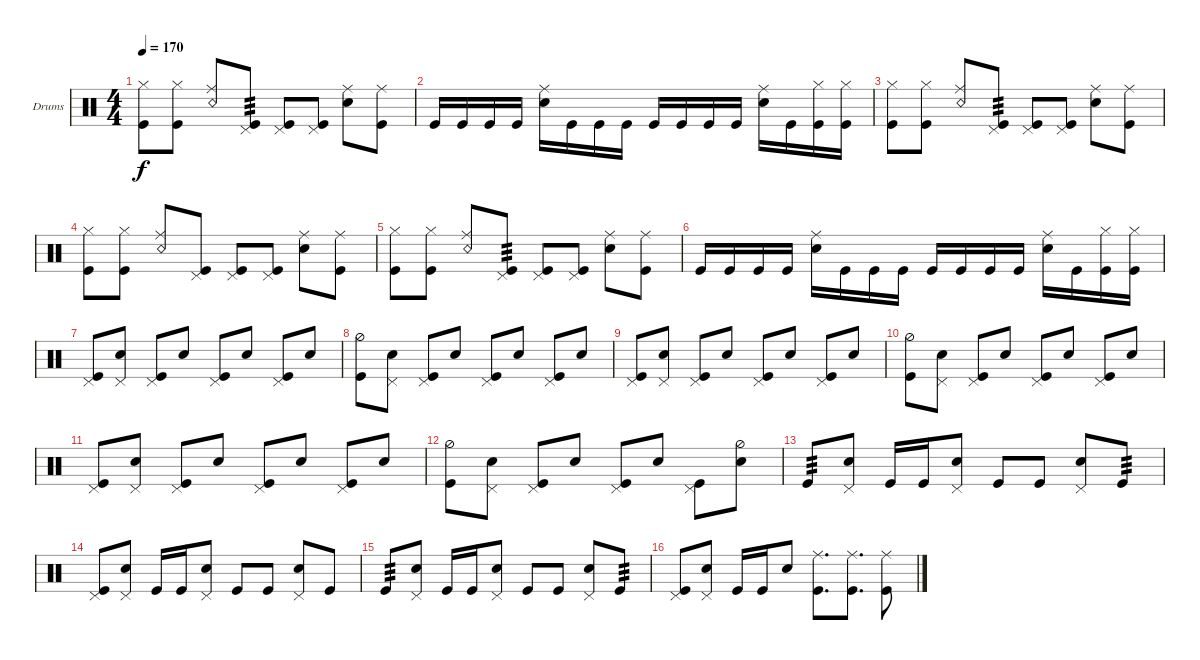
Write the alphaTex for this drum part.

\bracketExtendMode groupsimilarinstruments
\firstSystemTrackNameOrientation horizontal
\otherSystemsTrackNameOrientation horizontal
\track ("Danya" "Drums") {mute instrument percussion}
\staff {score}
\articulation defaults
\ts (4 4)
\tempo 170
\clef neutral
\scale
0.333333
\ks c
("Hi-Hat (closed)" "Kick (hit)").8{dy f} ("Hi-Hat (closed)" "Kick (hit)").8 ("Snare (rim shot)" "Ride (middle)").8 ("Kick (hit)" "Pedal Hi-Hat (hit)").8{tp 3} ("Kick (hit)" "Pedal Hi-Hat (hit)").8 ("Kick (hit)" "Pedal Hi-Hat (hit)").8 ("Snare (hit) 2" "Ride (middle)").8 ("Kick (hit)" "Ride (middle)").8 |
\scale
0.333333 "Kick (hit)".16 "Kick (hit)".16 "Kick (hit)".16 "Kick (hit)".16 ("Ride (middle)" "Snare (hit) 2").16 "Kick (hit)".16 "Kick (hit)".16 "Kick (hit)".16 "Kick (hit)".16 "Kick (hit)".16 "Kick (hit)".16 "Kick (hit)".16 ("Ride (middle)" "Snare (hit) 2").16 "Kick (hit)".16 ("Kick (hit)" "Hi-Hat (closed)").16 ("Kick (hit)" "Hi-Hat (closed)").16 |
\scale
0.333333 ("Hi-Hat (closed)" "Kick (hit)").8 ("Hi-Hat (closed)" "Kick (hit)").8 ("Snare (rim shot)" "Ride (middle)").8 ("Kick (hit)" "Pedal Hi-Hat (hit)").8{tp 3} ("Kick (hit)" "Pedal Hi-Hat (hit)").8 ("Kick (hit)" "Pedal Hi-Hat (hit)").8 ("Snare (hit) 2" "Ride (middle)").8 ("Kick (hit)" "Ride (middle)").8 |
\scale
0.333333 ("Hi-Hat (closed)" "Kick (hit)").8 ("Hi-Hat (closed)" "Kick (hit)").8 ("Snare (rim shot)" "Ride (middle)").8 ("Kick (hit)" "Pedal Hi-Hat (hit)").8 ("Kick (hit)" "Pedal Hi-Hat (hit)").8 ("Kick (hit)" "Pedal Hi-Hat (hit)").8 ("Snare (hit) 2" "Ride (middle)").8 ("Kick (hit)" "Ride (middle)").8 |
\scale
0.333333 ("Hi-Hat (closed)" "Kick (hit)").8 ("Hi-Hat (closed)" "Kick (hit)").8 ("Snare (rim shot)" "Ride (middle)").8 ("Kick (hit)" "Pedal Hi-Hat (hit)").8{tp 3} ("Kick (hit)" "Pedal Hi-Hat (hit)").8 ("Kick (hit)" "Pedal Hi-Hat (hit)").8 ("Snare (hit) 2" "Ride (middle)").8 ("Kick (hit)" "Ride (middle)").8 |
\scale
0.333333 "Kick (hit)".16 "Kick (hit)".16 "Kick (hit)".16 "Kick (hit)".16 ("Ride (middle)" "Snare (hit) 2").16 "Kick (hit)".16 "Kick (hit)".16 "Kick (hit)".16 "Kick (hit)".16 "Kick (hit)".16 "Kick (hit)".16 "Kick (hit)".16 ("Ride (middle)" "Snare (hit) 2").16 "Kick (hit)".16 ("Kick (hit)" "Hi-Hat (closed)").16 ("Kick (hit)" "Hi-Hat (closed)").16 |
\scale
0.333333 ("Kick (hit)" "Pedal Hi-Hat (hit)").8 ("Snare (hit) 2" "Pedal Hi-Hat (hit)").8 ("Kick (hit)" "Pedal Hi-Hat (hit)").8 "Snare (hit) 2".8 ("Pedal Hi-Hat (hit)" "Kick (hit)").8 "Snare (hit) 2".8 ("Kick (hit)" "Pedal Hi-Hat (hit)").8 "Snare (hit) 2".8 |
\scale
0.333333 ("Kick (hit)" "Hi-Hat (half)").8 ("Snare (hit) 2" "Pedal Hi-Hat (hit)").8 ("Kick (hit)" "Pedal Hi-Hat (hit)").8 "Snare (hit) 2".8 ("Pedal Hi-Hat (hit)" "Kick (hit)").8 "Snare (hit) 2".8 ("Kick (hit)" "Pedal Hi-Hat (hit)").8 "Snare (hit) 2".8 |
\scale
0.333333 ("Kick (hit)" "Pedal Hi-Hat (hit)").8 ("Snare (hit) 2" "Pedal Hi-Hat (hit)").8 ("Kick (hit)" "Pedal Hi-Hat (hit)").8 "Snare (hit) 2".8 ("Pedal Hi-Hat (hit)" "Kick (hit)").8 "Snare (hit) 2".8 ("Kick (hit)" "Pedal Hi-Hat (hit)").8 "Snare (hit) 2".8 |
\scale
0.333333 ("Kick (hit)" "Hi-Hat (half)").8 ("Snare (hit) 2" "Pedal Hi-Hat (hit)").8 ("Kick (hit)" "Pedal Hi-Hat (hit)").8 "Snare (hit) 2".8 ("Pedal Hi-Hat (hit)" "Kick (hit)").8 "Snare (hit) 2".8 ("Kick (hit)" "Pedal Hi-Hat (hit)").8 "Snare (hit) 2".8 |
\scale
0.333333 ("Kick (hit)" "Pedal Hi-Hat (hit)").8 ("Snare (hit) 2" "Pedal Hi-Hat (hit)").8 ("Kick (hit)" "Pedal Hi-Hat (hit)").8 "Snare (hit) 2".8 ("Pedal Hi-Hat (hit)" "Kick (hit)").8 "Snare (hit) 2".8 ("Kick (hit)" "Pedal Hi-Hat (hit)").8 "Snare (hit) 2".8 |
\scale
0.333333 ("Kick (hit)" "Hi-Hat (half)").8 ("Snare (hit) 2" "Pedal Hi-Hat (hit)").8 ("Kick (hit)" "Pedal Hi-Hat (hit)").8 "Snare (hit) 2".8 ("Pedal Hi-Hat (hit)" "Kick (hit)").8 "Snare (hit) 2".8 ("Kick (hit)" "Pedal Hi-Hat (hit)").8 ("Snare (hit) 2" "Hi-Hat (half)").8 |
\scale
0.333333 "Kick (hit)".8{tp 3} ("Snare (hit) 2" "Pedal Hi-Hat (hit)").8 "Kick (hit)".16 "Kick (hit)".16 ("Snare (hit) 2" "Pedal Hi-Hat (hit)").8 "Kick (hit)".8 "Kick (hit)".8 ("Snare (hit) 2" "Pedal Hi-Hat (hit)").8 "Kick (hit)".8{tp 3} |
\scale
0.333333 ("Kick (hit)" "Pedal Hi-Hat (hit)").8 ("Snare (hit) 2" "Pedal Hi-Hat (hit)").8 "Kick (hit)".16 "Kick (hit)".16 ("Snare (hit) 2" "Pedal Hi-Hat (hit)").8 "Kick (hit)".8 "Kick (hit)".8 ("Snare (hit) 2" "Pedal Hi-Hat (hit)").8 "Kick (hit)".8 |
\scale
0.333333 "Kick (hit)".8{tp 3} ("Snare (hit) 2" "Pedal Hi-Hat (hit)").8 "Kick (hit)".16 "Kick (hit)".16 ("Snare (hit) 2" "Pedal Hi-Hat (hit)").8 "Kick (hit)".8 "Kick (hit)".8 ("Snare (hit) 2" "Pedal Hi-Hat (hit)").8 "Kick (hit)".8{tp 3} |
\scale
0.333333 ("Kick (hit)" "Pedal Hi-Hat (hit)").8 ("Snare (hit) 2" "Pedal Hi-Hat (hit)").8 "Kick (hit)".16 "Kick (hit)".16 "Snare (hit) 2".8 ("Kick (hit)" "Ride (middle)").8{d} ("Kick (hit)" "Ride (middle)").8{d} ("Kick (hit)" "Ride (middle)").8
